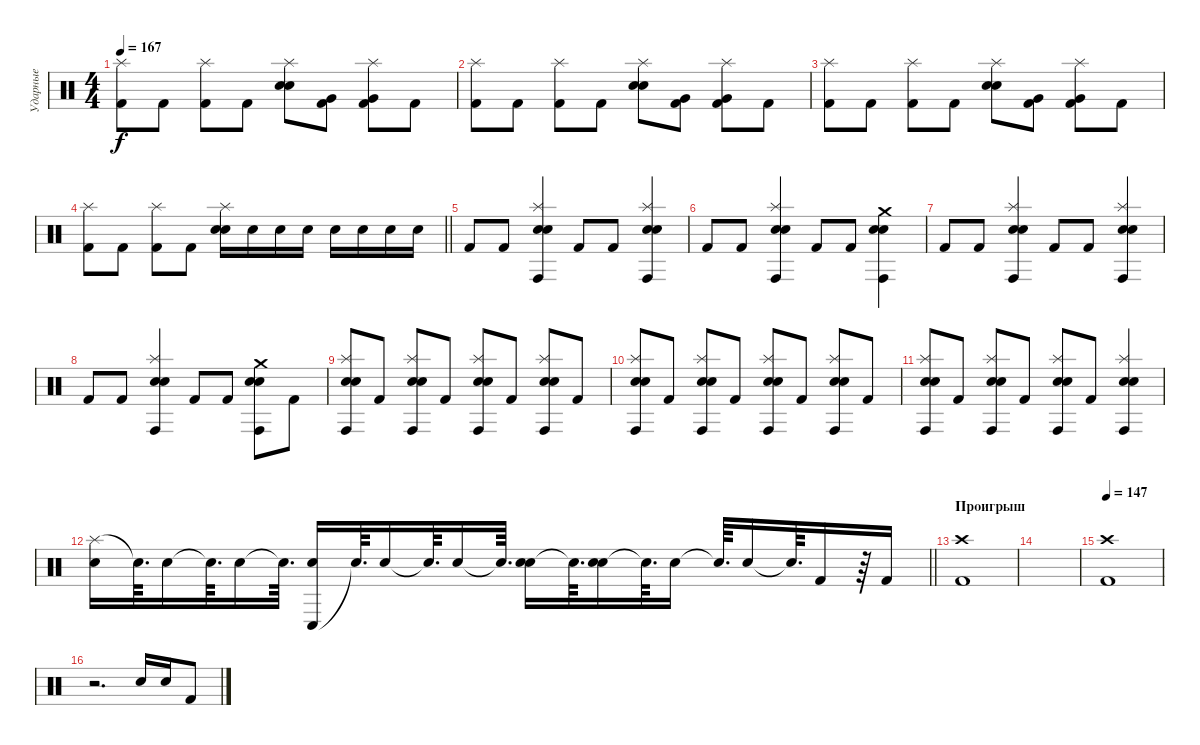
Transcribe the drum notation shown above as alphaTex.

\track ("Ударные" "Ударные") {instrument percussion}
\staff {score}
\articulation defaults
\ts (4 4)
\tempo 167
\clef neutral
\ks c
("Splash (hit)" "Kick (hit) 2").8{dy f} "Kick (hit) 2".8 ("Splash (hit)" "Kick (hit) 2").8 "Kick (hit) 2".8 ("Splash (hit)" "Electric Snare (hit)" "Snare (hit) 2").8 ("Very Low Tom (hit)" "Kick (hit) 2").8 ("Splash (hit)" "Very Low Tom (hit)" "Kick (hit) 2").8 "Kick (hit) 2".8 |
("Splash (hit)" "Kick (hit) 2").8 "Kick (hit) 2".8 ("Splash (hit)" "Kick (hit) 2").8 "Kick (hit) 2".8 ("Splash (hit)" "Electric Snare (hit)" "Snare (hit) 2").8 ("Very Low Tom (hit)" "Kick (hit) 2").8 ("Splash (hit)" "Very Low Tom (hit)" "Kick (hit) 2").8 "Kick (hit) 2".8 |
("Splash (hit)" "Kick (hit) 2").8 "Kick (hit) 2".8 ("Splash (hit)" "Kick (hit) 2").8 "Kick (hit) 2".8 ("Splash (hit)" "Electric Snare (hit)" "Snare (hit) 2").8 ("Very Low Tom (hit)" "Kick (hit) 2").8 ("Splash (hit)" "Very Low Tom (hit)" "Kick (hit) 2").8 "Kick (hit) 2".8 |
\barLineRight lightlight
("Splash (hit)" "Kick (hit) 2").8 "Kick (hit) 2".8 ("Splash (hit)" "Kick (hit) 2").8 "Kick (hit) 2".8 ("Splash (hit)" "Electric Snare (hit)" "Snare (hit) 2").16 "Electric Snare (hit)".16 "Electric Snare (hit)".16 "Electric Snare (hit)".16 "Electric Snare (hit)".16 "Electric Snare (hit)".16 "Electric Snare (hit)".16 "Electric Snare (hit)".16 |
"Kick (hit) 2".8 "Kick (hit) 2".8 ("Splash (hit)" "Conga high (hit)" "Electric Snare (hit)" "Snare (hit) 2").4 "Kick (hit) 2".8 "Kick (hit) 2".8 ("Splash (hit)" "Conga high (hit)" "Electric Snare (hit)" "Snare (hit) 2").4 |
"Kick (hit) 2".8 "Kick (hit) 2".8 ("Splash (hit)" "Conga high (hit)" "Electric Snare (hit)" "Snare (hit) 2").4 "Kick (hit) 2".8 "Kick (hit) 2".8 ("Crash medium (hit)" "Conga high (hit)" "Electric Snare (hit)" "Snare (hit) 2").4 |
"Kick (hit) 2".8 "Kick (hit) 2".8 ("Splash (hit)" "Conga high (hit)" "Electric Snare (hit)" "Snare (hit) 2").4 "Kick (hit) 2".8 "Kick (hit) 2".8 ("Splash (hit)" "Conga high (hit)" "Electric Snare (hit)" "Snare (hit) 2").4 |
"Kick (hit) 2".8 "Kick (hit) 2".8 ("Splash (hit)" "Conga high (hit)" "Electric Snare (hit)" "Snare (hit) 2").4 "Kick (hit) 2".8 "Kick (hit) 2".8 ("Crash medium (hit)" "Conga high (hit)" "Electric Snare (hit)" "Snare (hit) 2").8 "Kick (hit) 2".8 |
("Splash (hit)" "Conga high (hit)" "Electric Snare (hit)" "Snare (hit) 2").8 "Kick (hit) 2".8 ("Splash (hit)" "Conga high (hit)" "Electric Snare (hit)" "Snare (hit) 2").8 "Kick (hit) 2".8 ("Splash (hit)" "Conga high (hit)" "Electric Snare (hit)" "Snare (hit) 2").8 "Kick (hit) 2".8 ("Splash (hit)" "Conga high (hit)" "Electric Snare (hit)" "Snare (hit) 2").8 "Kick (hit) 2".8 |
("Splash (hit)" "Conga high (hit)" "Electric Snare (hit)" "Snare (hit) 2").8 "Kick (hit) 2".8 ("Splash (hit)" "Conga high (hit)" "Electric Snare (hit)" "Snare (hit) 2").8 "Kick (hit) 2".8 ("Splash (hit)" "Conga high (hit)" "Electric Snare (hit)" "Snare (hit) 2").8 "Kick (hit) 2".8 ("Splash (hit)" "Conga high (hit)" "Electric Snare (hit)" "Snare (hit) 2").8 "Kick (hit) 2".8 |
("Splash (hit)" "Conga high (hit)" "Electric Snare (hit)" "Snare (hit) 2").8 "Kick (hit) 2".8 ("Splash (hit)" "Conga high (hit)" "Electric Snare (hit)" "Snare (hit) 2").8 "Kick (hit) 2".8 ("Splash (hit)" "Conga high (hit)" "Electric Snare (hit)" "Snare (hit) 2").8 "Kick (hit) 2".8 ("Splash (hit)" "Conga high (hit)" "Electric Snare (hit)" "Snare (hit) 2").4 |
\barLineRight lightlight
("Splash (hit)" "Electric Snare (hit)").16 "Snare (hit)"{t}.64{d} "Electric Snare (hit)".16 "Snare (hit)"{t}.64{d} "Electric Snare (hit)".16 "Snare (hit)"{t}.64{d} ("Conga low (hit)" "Electric Snare (hit)").16 "Snare (hit)"{t}.64{d} "Electric Snare (hit)".16 "Snare (hit)"{t}.64{d} "Electric Snare (hit)".16 "Snare (hit)"{t}.64{d} ("Electric Snare (hit)" "Snare (hit) 2").16 "Snare (hit)"{t}.64{d} ("Electric Snare (hit)" "Snare (hit) 2").16 "Snare (hit)"{t}.64{d} "Snare (hit) 2".16 "Snare (hit)"{t}.64{d} "Snare (hit) 2".16 "Snare (hit)"{t}.64{d} "Kick (hit) 2".16 r.64 "Kick (hit) 2".16 |
\section ("" "Проигрыш")
("Crash high (hit)" "Kick (hit) 2").1 |
|
\tempo 147
("Crash high (hit)" "Kick (hit) 2").1 |
r.2{d} "Electric Snare (hit)".16 "Snare (hit) 2".16 "Kick (hit) 2".8
